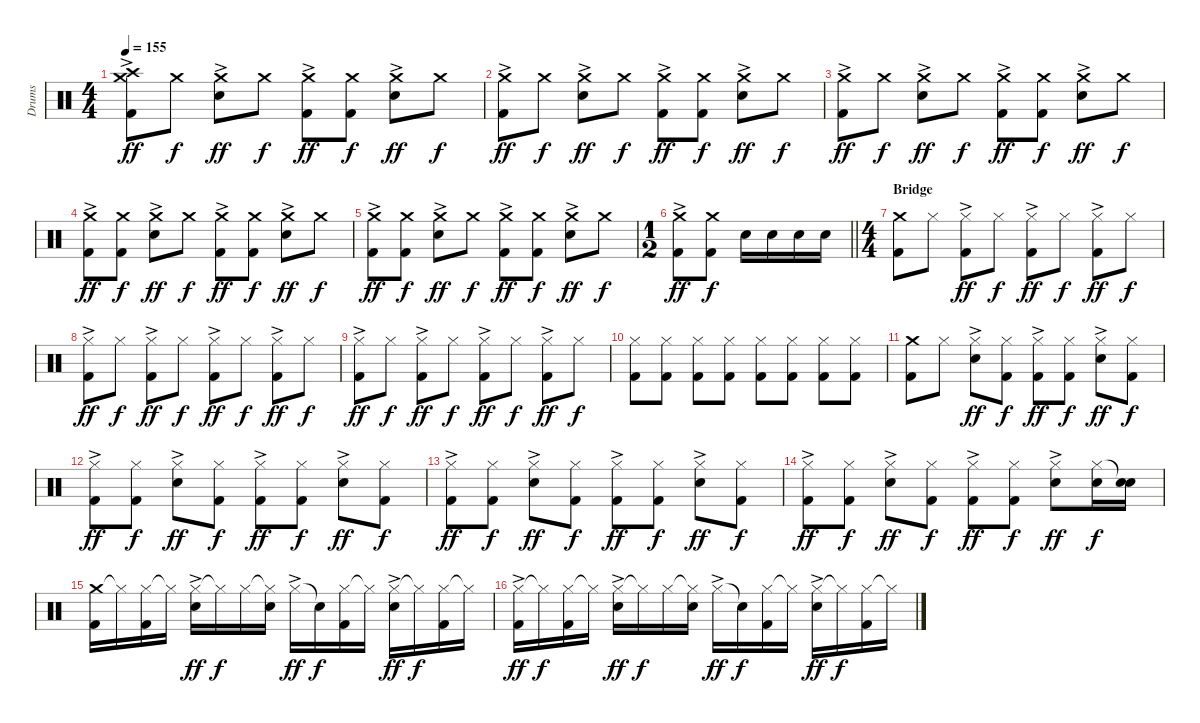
\track ("Drums" "Drums") {instrument percussion}
\staff {score}
\articulation defaults
\ts (4 4)
\tempo 155
\clef neutral
\ks c
("Crash medium (hit)"{ac} "Crash high (hit)" "Kick (hit) 2").8{dy ff} "Crash medium (hit)".8{dy f} ("Crash medium (hit)"{ac} "Electric Snare (hit)").8{dy ff} "Crash medium (hit)".8{dy f} ("Crash medium (hit)"{ac} "Kick (hit) 2").8{dy ff} ("Crash medium (hit)" "Kick (hit) 2").8{dy f} ("Crash medium (hit)"{ac} "Electric Snare (hit)").8{dy ff} "Crash medium (hit)".8{dy f} |
("Crash medium (hit)"{ac} "Kick (hit) 2").8{dy ff} "Crash medium (hit)".8{dy f} ("Crash medium (hit)"{ac} "Electric Snare (hit)").8{dy ff} "Crash medium (hit)".8{dy f} ("Crash medium (hit)"{ac} "Kick (hit) 2").8{dy ff} ("Crash medium (hit)" "Kick (hit) 2").8{dy f} ("Crash medium (hit)"{ac} "Electric Snare (hit)").8{dy ff} "Crash medium (hit)".8{dy f} |
("Crash medium (hit)"{ac} "Kick (hit) 2").8{dy ff} "Crash medium (hit)".8{dy f} ("Crash medium (hit)"{ac} "Electric Snare (hit)").8{dy ff} "Crash medium (hit)".8{dy f} ("Crash medium (hit)"{ac} "Kick (hit) 2").8{dy ff} ("Crash medium (hit)" "Kick (hit) 2").8{dy f} ("Crash medium (hit)"{ac} "Electric Snare (hit)").8{dy ff} "Crash medium (hit)".8{dy f} |
("Crash medium (hit)"{ac} "Kick (hit) 2").8{dy ff} ("Crash medium (hit)" "Kick (hit) 2").8{dy f} ("Crash medium (hit)"{ac} "Electric Snare (hit)").8{dy ff} "Crash medium (hit)".8{dy f} ("Crash medium (hit)"{ac} "Kick (hit) 2").8{dy ff} ("Crash medium (hit)" "Kick (hit) 2").8{dy f} ("Crash medium (hit)"{ac} "Electric Snare (hit)").8{dy ff} "Crash medium (hit)".8{dy f} |
("Crash medium (hit)"{ac} "Kick (hit) 2").8{dy ff} ("Crash medium (hit)" "Kick (hit) 2").8{dy f} ("Crash medium (hit)"{ac} "Electric Snare (hit)").8{dy ff} "Crash medium (hit)".8{dy f} ("Crash medium (hit)"{ac} "Kick (hit) 2").8{dy ff} ("Crash medium (hit)" "Kick (hit) 2").8{dy f} ("Crash medium (hit)"{ac} "Electric Snare (hit)").8{dy ff} "Crash medium (hit)".8{dy f} |
\ts (1 2)
\barLineRight lightlight
("Crash medium (hit)"{ac} "Kick (hit) 2").8{dy ff} ("Crash medium (hit)" "Kick (hit) 2").8{dy f} "Electric Snare (hit)".16 "Electric Snare (hit)".16 "Electric Snare (hit)".16 "Electric Snare (hit)".16 |
\ts (4 4)
\section ("" "Bridge")
("Crash medium (hit)" "Kick (hit) 2").8 "Hi-Hat (closed)".8 ("Hi-Hat (closed)"{ac} "Kick (hit) 2").8{dy ff} "Hi-Hat (closed)".8{dy f} ("Hi-Hat (closed)"{ac} "Kick (hit) 2").8{dy ff} "Hi-Hat (closed)".8{dy f} ("Hi-Hat (closed)"{ac} "Kick (hit) 2").8{dy ff} "Hi-Hat (closed)".8{dy f} |
("Hi-Hat (closed)"{ac} "Kick (hit) 2").8{dy ff} "Hi-Hat (closed)".8{dy f} ("Hi-Hat (closed)"{ac} "Kick (hit) 2").8{dy ff} "Hi-Hat (closed)".8{dy f} ("Hi-Hat (closed)"{ac} "Kick (hit) 2").8{dy ff} "Hi-Hat (closed)".8{dy f} ("Hi-Hat (closed)"{ac} "Kick (hit) 2").8{dy ff} "Hi-Hat (closed)".8{dy f} |
("Hi-Hat (closed)"{ac} "Kick (hit) 2").8{dy ff} "Hi-Hat (closed)".8{dy f} ("Hi-Hat (closed)"{ac} "Kick (hit) 2").8{dy ff} "Hi-Hat (closed)".8{dy f} ("Hi-Hat (closed)"{ac} "Kick (hit) 2").8{dy ff} "Hi-Hat (closed)".8{dy f} ("Hi-Hat (closed)"{ac} "Kick (hit) 2").8{dy ff} "Hi-Hat (closed)".8{dy f} |
("Hi-Hat (closed)" "Kick (hit) 2").8 ("Hi-Hat (closed)" "Kick (hit) 2").8 ("Hi-Hat (closed)" "Kick (hit) 2").8 ("Hi-Hat (closed)" "Kick (hit) 2").8 ("Hi-Hat (closed)" "Kick (hit) 2").8 ("Hi-Hat (closed)" "Kick (hit) 2").8 ("Hi-Hat (closed)" "Kick (hit) 2").8 ("Hi-Hat (closed)" "Kick (hit) 2").8 |
("Crash medium (hit)" "Kick (hit) 2").8 "Hi-Hat (closed)".8 ("Hi-Hat (closed)"{ac} "Electric Snare (hit)").8{dy ff} ("Hi-Hat (closed)" "Kick (hit) 2").8{dy f} ("Hi-Hat (closed)"{ac} "Kick (hit) 2").8{dy ff} ("Hi-Hat (closed)" "Kick (hit) 2").8{dy f} ("Hi-Hat (closed)"{ac} "Electric Snare (hit)").8{dy ff} ("Hi-Hat (closed)" "Kick (hit) 2").8{dy f} |
("Hi-Hat (closed)"{ac} "Kick (hit) 2").8{dy ff} ("Hi-Hat (closed)" "Kick (hit) 2").8{dy f} ("Hi-Hat (closed)"{ac} "Electric Snare (hit)").8{dy ff} ("Hi-Hat (closed)" "Kick (hit) 2").8{dy f} ("Hi-Hat (closed)"{ac} "Kick (hit) 2").8{dy ff} ("Hi-Hat (closed)" "Kick (hit) 2").8{dy f} ("Hi-Hat (closed)"{ac} "Electric Snare (hit)").8{dy ff} ("Hi-Hat (closed)" "Kick (hit) 2").8{dy f} |
("Hi-Hat (closed)"{ac} "Kick (hit) 2").8{dy ff} ("Hi-Hat (closed)" "Kick (hit) 2").8{dy f} ("Hi-Hat (closed)"{ac} "Electric Snare (hit)").8{dy ff} ("Hi-Hat (closed)" "Kick (hit) 2").8{dy f} ("Hi-Hat (closed)"{ac} "Kick (hit) 2").8{dy ff} ("Hi-Hat (closed)" "Kick (hit) 2").8{dy f} ("Hi-Hat (closed)"{ac} "Electric Snare (hit)").8{dy ff} ("Hi-Hat (closed)" "Kick (hit) 2").8{dy f} |
("Hi-Hat (closed)"{ac} "Kick (hit) 2").8{dy ff} ("Hi-Hat (closed)" "Kick (hit) 2").8{dy f} ("Hi-Hat (closed)"{ac} "Electric Snare (hit)").8{dy ff} ("Hi-Hat (closed)" "Kick (hit) 2").8{dy f} ("Hi-Hat (closed)"{ac} "Kick (hit) 2").8{dy ff} ("Hi-Hat (closed)" "Kick (hit) 2").8{dy f} ("Hi-Hat (closed)"{ac} "Electric Snare (hit)").8{dy ff} ("Hi-Hat (closed)" "Electric Snare (hit)").16{dy f} ("Snare (hit)"{t} "Electric Snare (hit)").16 |
("Crash medium (hit)" "Kick (hit) 2").16 "Hi-Hat (closed)"{t}.16 ("Hi-Hat (closed)" "Kick (hit) 2").16 "Hi-Hat (closed)"{t}.16 ("Hi-Hat (closed)"{ac} "Electric Snare (hit)").16{dy ff} "Hi-Hat (closed)"{t}.16{dy f} "Hi-Hat (closed)".16 ("Hi-Hat (closed)"{t} "Electric Snare (hit)").16 "Hi-Hat (closed)"{ac}.16{dy ff} "Snare (hit)"{t}.16{dy f} ("Hi-Hat (closed)" "Kick (hit) 2").16 "Hi-Hat (closed)"{t}.16 ("Hi-Hat (closed)"{ac} "Electric Snare (hit)").16{dy ff} "Hi-Hat (closed)"{t}.16{dy f} ("Hi-Hat (closed)" "Kick (hit) 2").16 "Hi-Hat (closed)"{t}.16 |
("Hi-Hat (closed)"{ac} "Kick (hit) 2").16{dy ff} "Hi-Hat (closed)"{t}.16{dy f} ("Hi-Hat (closed)" "Kick (hit) 2").16 "Hi-Hat (closed)"{t}.16 ("Hi-Hat (closed)"{ac} "Electric Snare (hit)").16{dy ff} "Hi-Hat (closed)"{t}.16{dy f} "Hi-Hat (closed)".16 ("Hi-Hat (closed)"{t} "Electric Snare (hit)").16 "Hi-Hat (closed)"{ac}.16{dy ff} "Snare (hit)"{t}.16{dy f} ("Hi-Hat (closed)" "Kick (hit) 2").16 "Hi-Hat (closed)"{t}.16 ("Hi-Hat (closed)"{ac} "Electric Snare (hit)").16{dy ff} "Hi-Hat (closed)"{t}.16{dy f} ("Hi-Hat (closed)" "Kick (hit) 2").16 "Hi-Hat (closed)"{t}.16
